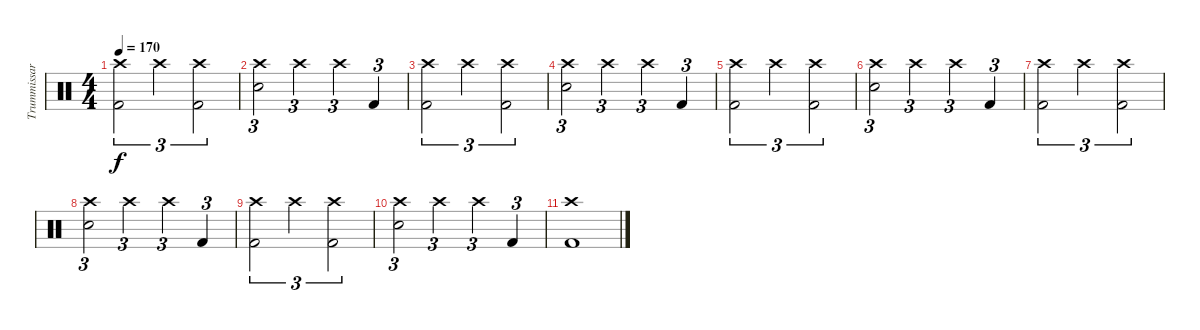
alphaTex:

\track ("Trummissar!!" "Trummissar") {instrument percussion}
\staff {score}
\articulation defaults
\ts (4 4)
\tempo 170
\clef neutral
\ks c
("Crash high (hit)" "Kick (hit) 2").2{tu (3 2) dy f} "Crash high (hit)".2{tu (3 2)} ("Crash high (hit)" "Kick (hit) 2").2{tu (3 2)} |
("Crash high (hit)" "Electric Snare (hit)").2{tu (3 2)} "Crash high (hit)".2{tu (3 2)} "Crash high (hit)".4{tu (3 2)} "Kick (hit) 2".4{tu (3 2)} |
("Crash high (hit)" "Kick (hit) 2").2{tu (3 2)} "Crash high (hit)".2{tu (3 2)} ("Crash high (hit)" "Kick (hit) 2").2{tu (3 2)} |
("Crash high (hit)" "Electric Snare (hit)").2{tu (3 2)} "Crash high (hit)".2{tu (3 2)} "Crash high (hit)".4{tu (3 2)} "Kick (hit) 2".4{tu (3 2)} |
("Crash high (hit)" "Kick (hit) 2").2{tu (3 2)} "Crash high (hit)".2{tu (3 2)} ("Crash high (hit)" "Kick (hit) 2").2{tu (3 2)} |
("Crash high (hit)" "Electric Snare (hit)").2{tu (3 2)} "Crash high (hit)".2{tu (3 2)} "Crash high (hit)".4{tu (3 2)} "Kick (hit) 2".4{tu (3 2)} |
("Crash high (hit)" "Kick (hit) 2").2{tu (3 2)} "Crash high (hit)".2{tu (3 2)} ("Crash high (hit)" "Kick (hit) 2").2{tu (3 2)} |
("Crash high (hit)" "Electric Snare (hit)").2{tu (3 2)} "Crash high (hit)".2{tu (3 2)} "Crash high (hit)".4{tu (3 2)} "Kick (hit) 2".4{tu (3 2)} |
("Crash high (hit)" "Kick (hit) 2").2{tu (3 2)} "Crash high (hit)".2{tu (3 2)} ("Crash high (hit)" "Kick (hit) 2").2{tu (3 2)} |
("Crash high (hit)" "Electric Snare (hit)").2{tu (3 2)} "Crash high (hit)".2{tu (3 2)} "Crash high (hit)".4{tu (3 2)} "Kick (hit) 2".4{tu (3 2)} |
("Crash high (hit)" "Kick (hit) 2").1
